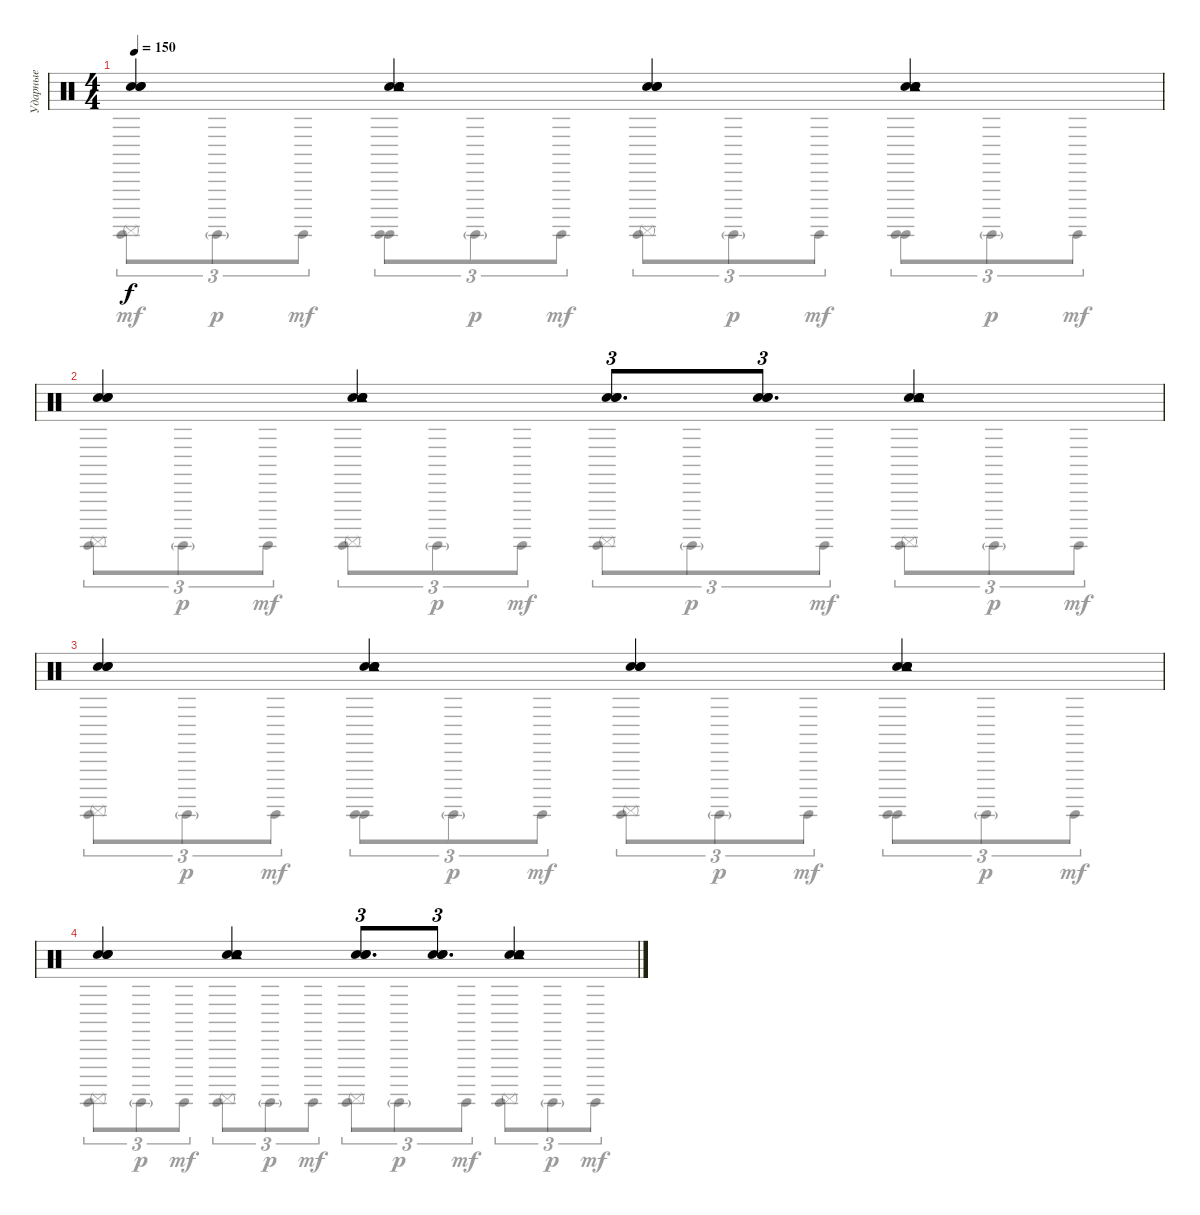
\track ("Ударные" "Ударные") {instrument percussion}
\staff {score}
\articulation defaults
\voice
\ts (4 4)
\tempo 150
\clef neutral
\ks c
("Hand Clap (hit)" "Hand Clap (hit)" "Hand Clap (hit)").4{dy f} ("Hand Clap (hit)" "Hand Clap (hit)" "Hand Clap (hit)" "Tambourine (hit)" "Tambourine (hit)").4 ("Hand Clap (hit)" "Hand Clap (hit)" "Hand Clap (hit)").4 ("Hand Clap (hit)" "Hand Clap (hit)" "Hand Clap (hit)" "Tambourine (hit)" "Tambourine (hit)").4 |
("Hand Clap (hit)" "Hand Clap (hit)" "Hand Clap (hit)").4 ("Hand Clap (hit)" "Hand Clap (hit)" "Hand Clap (hit)" "Tambourine (hit)" "Tambourine (hit)").4 ("Hand Clap (hit)" "Hand Clap (hit)" "Hand Clap (hit)").8{d tu (3 2)} ("Hand Clap (hit)" "Hand Clap (hit)" "Hand Clap (hit)").8{d tu (3 2)} ("Hand Clap (hit)" "Hand Clap (hit)" "Hand Clap (hit)" "Tambourine (hit)" "Tambourine (hit)").4 |
("Hand Clap (hit)" "Hand Clap (hit)" "Hand Clap (hit)").4 ("Hand Clap (hit)" "Hand Clap (hit)" "Hand Clap (hit)" "Tambourine (hit)" "Tambourine (hit)").4 ("Hand Clap (hit)" "Hand Clap (hit)" "Hand Clap (hit)").4 ("Hand Clap (hit)" "Hand Clap (hit)" "Hand Clap (hit)" "Tambourine (hit)" "Tambourine (hit)").4 |
("Hand Clap (hit)" "Hand Clap (hit)" "Hand Clap (hit)").4 ("Hand Clap (hit)" "Hand Clap (hit)" "Hand Clap (hit)" "Tambourine (hit)" "Tambourine (hit)").4 ("Hand Clap (hit)" "Hand Clap (hit)" "Hand Clap (hit)").8{d tu (3 2)} ("Hand Clap (hit)" "Hand Clap (hit)" "Hand Clap (hit)").8{d tu (3 2)} ("Hand Clap (hit)" "Hand Clap (hit)" "Hand Clap (hit)" "Tambourine (hit)" "Tambourine (hit)").4
\voice
\clef neutral
\ottava regular
\simile none
\ks c
("Surdo (hit)" "Surdo (mute)").8{tu (3 2) dy mf} "Surdo (hit)"{g}.8{tu (3 2) dy p} "Surdo (hit)".8{tu (3 2) dy mf} ("Surdo (hit)" "Surdo (hit)").8{tu (3 2)} "Surdo (hit)"{g}.8{tu (3 2) dy p} "Surdo (hit)".8{tu (3 2) dy mf} ("Surdo (hit)" "Surdo (mute)").8{tu (3 2)} "Surdo (hit)"{g}.8{tu (3 2) dy p} "Surdo (hit)".8{tu (3 2) dy mf} ("Surdo (hit)" "Surdo (hit)").8{tu (3 2)} "Surdo (hit)"{g}.8{tu (3 2) dy p} "Surdo (hit)".8{tu (3 2) dy mf} |
("Surdo (hit)" "Surdo (mute)").8{tu (3 2)} "Surdo (hit)"{g}.8{tu (3 2) dy p} "Surdo (hit)".8{tu (3 2) dy mf} ("Surdo (hit)" "Surdo (mute)").8{tu (3 2)} "Surdo (hit)"{g}.8{tu (3 2) dy p} "Surdo (hit)".8{tu (3 2) dy mf} ("Surdo (hit)" "Surdo (mute)").8{tu (3 2)} "Surdo (hit)"{g}.8{tu (3 2) dy p} "Surdo (hit)".8{tu (3 2) dy mf} ("Surdo (hit)" "Surdo (mute)").8{tu (3 2)} "Surdo (hit)"{g}.8{tu (3 2) dy p} "Surdo (hit)".8{tu (3 2) dy mf} |
("Surdo (hit)" "Surdo (mute)").8{tu (3 2)} "Surdo (hit)"{g}.8{tu (3 2) dy p} "Surdo (hit)".8{tu (3 2) dy mf} ("Surdo (hit)" "Surdo (hit)").8{tu (3 2)} "Surdo (hit)"{g}.8{tu (3 2) dy p} "Surdo (hit)".8{tu (3 2) dy mf} ("Surdo (hit)" "Surdo (mute)").8{tu (3 2)} "Surdo (hit)"{g}.8{tu (3 2) dy p} "Surdo (hit)".8{tu (3 2) dy mf} ("Surdo (hit)" "Surdo (hit)").8{tu (3 2)} "Surdo (hit)"{g}.8{tu (3 2) dy p} "Surdo (hit)".8{tu (3 2) dy mf} |
("Surdo (hit)" "Surdo (mute)").8{tu (3 2)} "Surdo (hit)"{g}.8{tu (3 2) dy p} "Surdo (hit)".8{tu (3 2) dy mf} ("Surdo (hit)" "Surdo (mute)").8{tu (3 2)} "Surdo (hit)"{g}.8{tu (3 2) dy p} "Surdo (hit)".8{tu (3 2) dy mf} ("Surdo (hit)" "Surdo (mute)").8{tu (3 2)} "Surdo (hit)"{g}.8{tu (3 2) dy p} "Surdo (hit)".8{tu (3 2) dy mf} ("Surdo (hit)" "Surdo (mute)").8{tu (3 2)} "Surdo (hit)"{g}.8{tu (3 2) dy p} "Surdo (hit)".8{tu (3 2) dy mf}
